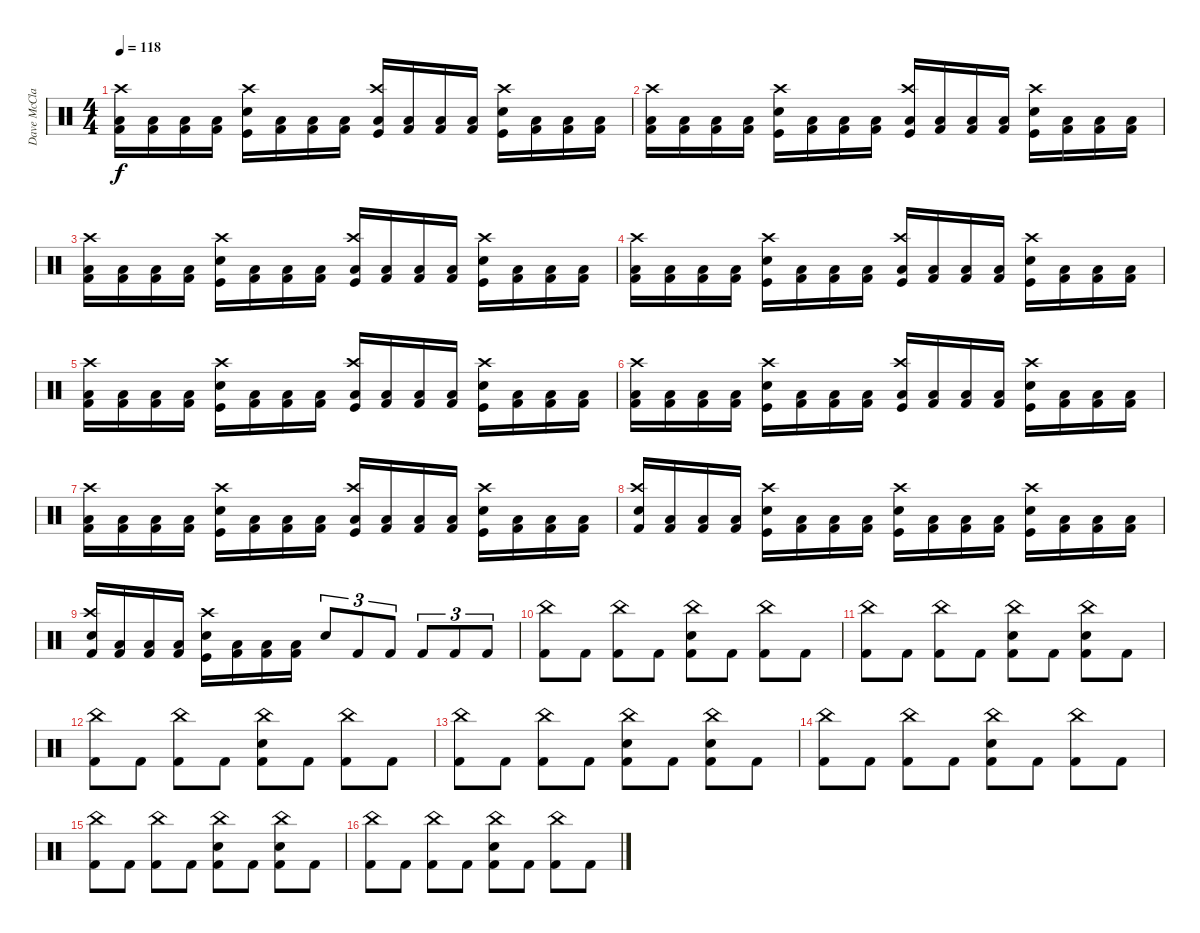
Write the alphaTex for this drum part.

\track ("Dave McClain" "Dave McCla") {instrument percussion}
\staff {score}
\articulation defaults
\ts (4 4)
\tempo 118
\clef neutral
\ks c
("Kick (hit) 2" "Low Floor Tom (hit)" "Crash high (hit)").16{dy f} ("Kick (hit) 2" "Low Floor Tom (hit)").16 ("Kick (hit) 2" "Low Floor Tom (hit)").16 ("Kick (hit) 2" "Low Floor Tom (hit)").16 ("Kick (hit)" "Snare (hit) 2" "Crash high (hit)").16 ("Kick (hit) 2" "Low Floor Tom (hit)").16 ("Kick (hit) 2" "Low Floor Tom (hit)").16 ("Kick (hit) 2" "Low Floor Tom (hit)").16 ("Kick (hit)" "Low Floor Tom (hit)" "Crash high (hit)").16 ("Kick (hit) 2" "Low Floor Tom (hit)").16 ("Kick (hit) 2" "Low Floor Tom (hit)").16 ("Kick (hit) 2" "Low Floor Tom (hit)").16 ("Kick (hit)" "Snare (hit) 2" "Crash high (hit)").16 ("Kick (hit) 2" "Low Floor Tom (hit)").16 ("Kick (hit) 2" "Low Floor Tom (hit)").16 ("Kick (hit) 2" "Low Floor Tom (hit)").16 |
("Kick (hit) 2" "Low Floor Tom (hit)" "Crash high (hit)").16 ("Kick (hit) 2" "Low Floor Tom (hit)").16 ("Kick (hit) 2" "Low Floor Tom (hit)").16 ("Kick (hit) 2" "Low Floor Tom (hit)").16 ("Kick (hit)" "Snare (hit) 2" "Crash high (hit)").16 ("Kick (hit) 2" "Low Floor Tom (hit)").16 ("Kick (hit) 2" "Low Floor Tom (hit)").16 ("Kick (hit) 2" "Low Floor Tom (hit)").16 ("Kick (hit)" "Low Floor Tom (hit)" "Crash high (hit)").16 ("Kick (hit) 2" "Low Floor Tom (hit)").16 ("Kick (hit) 2" "Low Floor Tom (hit)").16 ("Kick (hit) 2" "Low Floor Tom (hit)").16 ("Kick (hit)" "Snare (hit) 2" "Crash high (hit)").16 ("Kick (hit) 2" "Low Floor Tom (hit)").16 ("Kick (hit) 2" "Low Floor Tom (hit)").16 ("Kick (hit) 2" "Low Floor Tom (hit)").16 |
("Kick (hit) 2" "Low Floor Tom (hit)" "Crash high (hit)").16 ("Kick (hit) 2" "Low Floor Tom (hit)").16 ("Kick (hit) 2" "Low Floor Tom (hit)").16 ("Kick (hit) 2" "Low Floor Tom (hit)").16 ("Kick (hit)" "Snare (hit) 2" "Crash high (hit)").16 ("Kick (hit) 2" "Low Floor Tom (hit)").16 ("Kick (hit) 2" "Low Floor Tom (hit)").16 ("Kick (hit) 2" "Low Floor Tom (hit)").16 ("Kick (hit)" "Low Floor Tom (hit)" "Crash high (hit)").16 ("Kick (hit) 2" "Low Floor Tom (hit)").16 ("Kick (hit) 2" "Low Floor Tom (hit)").16 ("Kick (hit) 2" "Low Floor Tom (hit)").16 ("Kick (hit)" "Snare (hit) 2" "Crash high (hit)").16 ("Kick (hit) 2" "Low Floor Tom (hit)").16 ("Kick (hit) 2" "Low Floor Tom (hit)").16 ("Kick (hit) 2" "Low Floor Tom (hit)").16 |
("Kick (hit) 2" "Low Floor Tom (hit)" "Crash high (hit)").16 ("Kick (hit) 2" "Low Floor Tom (hit)").16 ("Kick (hit) 2" "Low Floor Tom (hit)").16 ("Kick (hit) 2" "Low Floor Tom (hit)").16 ("Kick (hit)" "Snare (hit) 2" "Crash high (hit)").16 ("Kick (hit) 2" "Low Floor Tom (hit)").16 ("Kick (hit) 2" "Low Floor Tom (hit)").16 ("Kick (hit) 2" "Low Floor Tom (hit)").16 ("Kick (hit)" "Low Floor Tom (hit)" "Crash high (hit)").16 ("Kick (hit) 2" "Low Floor Tom (hit)").16 ("Kick (hit) 2" "Low Floor Tom (hit)").16 ("Kick (hit) 2" "Low Floor Tom (hit)").16 ("Kick (hit)" "Snare (hit) 2" "Crash high (hit)").16 ("Kick (hit) 2" "Low Floor Tom (hit)").16 ("Kick (hit) 2" "Low Floor Tom (hit)").16 ("Kick (hit) 2" "Low Floor Tom (hit)").16 |
("Kick (hit) 2" "Low Floor Tom (hit)" "Crash high (hit)").16 ("Kick (hit) 2" "Low Floor Tom (hit)").16 ("Kick (hit) 2" "Low Floor Tom (hit)").16 ("Kick (hit) 2" "Low Floor Tom (hit)").16 ("Kick (hit)" "Snare (hit) 2" "Crash high (hit)").16 ("Kick (hit) 2" "Low Floor Tom (hit)").16 ("Kick (hit) 2" "Low Floor Tom (hit)").16 ("Kick (hit) 2" "Low Floor Tom (hit)").16 ("Kick (hit)" "Low Floor Tom (hit)" "Crash high (hit)").16 ("Kick (hit) 2" "Low Floor Tom (hit)").16 ("Kick (hit) 2" "Low Floor Tom (hit)").16 ("Kick (hit) 2" "Low Floor Tom (hit)").16 ("Kick (hit)" "Snare (hit) 2" "Crash high (hit)").16 ("Kick (hit) 2" "Low Floor Tom (hit)").16 ("Kick (hit) 2" "Low Floor Tom (hit)").16 ("Kick (hit) 2" "Low Floor Tom (hit)").16 |
("Kick (hit) 2" "Low Floor Tom (hit)" "Crash high (hit)").16 ("Kick (hit) 2" "Low Floor Tom (hit)").16 ("Kick (hit) 2" "Low Floor Tom (hit)").16 ("Kick (hit) 2" "Low Floor Tom (hit)").16 ("Kick (hit)" "Snare (hit) 2" "Crash high (hit)").16 ("Kick (hit) 2" "Low Floor Tom (hit)").16 ("Kick (hit) 2" "Low Floor Tom (hit)").16 ("Kick (hit) 2" "Low Floor Tom (hit)").16 ("Kick (hit)" "Low Floor Tom (hit)" "Crash high (hit)").16 ("Kick (hit) 2" "Low Floor Tom (hit)").16 ("Kick (hit) 2" "Low Floor Tom (hit)").16 ("Kick (hit) 2" "Low Floor Tom (hit)").16 ("Kick (hit)" "Snare (hit) 2" "Crash high (hit)").16 ("Kick (hit) 2" "Low Floor Tom (hit)").16 ("Kick (hit) 2" "Low Floor Tom (hit)").16 ("Kick (hit) 2" "Low Floor Tom (hit)").16 |
("Kick (hit) 2" "Low Floor Tom (hit)" "Crash high (hit)").16 ("Kick (hit) 2" "Low Floor Tom (hit)").16 ("Kick (hit) 2" "Low Floor Tom (hit)").16 ("Kick (hit) 2" "Low Floor Tom (hit)").16 ("Kick (hit)" "Snare (hit) 2" "Crash high (hit)").16 ("Kick (hit) 2" "Low Floor Tom (hit)").16 ("Kick (hit) 2" "Low Floor Tom (hit)").16 ("Kick (hit) 2" "Low Floor Tom (hit)").16 ("Kick (hit)" "Low Floor Tom (hit)" "Crash high (hit)").16 ("Kick (hit) 2" "Low Floor Tom (hit)").16 ("Kick (hit) 2" "Low Floor Tom (hit)").16 ("Kick (hit) 2" "Low Floor Tom (hit)").16 ("Kick (hit)" "Snare (hit) 2" "Crash high (hit)").16 ("Kick (hit) 2" "Low Floor Tom (hit)").16 ("Kick (hit) 2" "Low Floor Tom (hit)").16 ("Kick (hit) 2" "Low Floor Tom (hit)").16 |
("Kick (hit) 2" "Snare (hit) 2" "Crash high (hit)").16 ("Kick (hit) 2" "Low Floor Tom (hit)").16 ("Kick (hit) 2" "Low Floor Tom (hit)").16 ("Kick (hit) 2" "Low Floor Tom (hit)").16 ("Kick (hit)" "Snare (hit) 2" "Crash high (hit)").16 ("Kick (hit) 2" "Low Floor Tom (hit)").16 ("Kick (hit) 2" "Low Floor Tom (hit)").16 ("Kick (hit) 2" "Low Floor Tom (hit)").16 ("Kick (hit)" "Snare (hit) 2" "Crash high (hit)").16 ("Kick (hit) 2" "Low Floor Tom (hit)").16 ("Kick (hit) 2" "Low Floor Tom (hit)").16 ("Kick (hit) 2" "Low Floor Tom (hit)").16 ("Kick (hit)" "Snare (hit) 2" "Crash high (hit)").16 ("Kick (hit) 2" "Low Floor Tom (hit)").16 ("Kick (hit) 2" "Low Floor Tom (hit)").16 ("Kick (hit) 2" "Low Floor Tom (hit)").16 |
("Kick (hit) 2" "Snare (hit) 2" "Crash high (hit)").16 ("Kick (hit) 2" "Low Floor Tom (hit)").16 ("Kick (hit) 2" "Low Floor Tom (hit)").16 ("Kick (hit) 2" "Low Floor Tom (hit)").16 ("Kick (hit)" "Snare (hit) 2" "Crash high (hit)").16 ("Kick (hit) 2" "Low Floor Tom (hit)").16 ("Kick (hit) 2" "Low Floor Tom (hit)").16 ("Kick (hit) 2" "Low Floor Tom (hit)").16 "Snare (hit) 2".8{tu (3 2)} "Kick (hit) 2".8{tu (3 2)} "Kick (hit) 2".8{tu (3 2)} "Kick (hit) 2".8{tu (3 2)} "Kick (hit) 2".8{tu (3 2)} "Kick (hit) 2".8{tu (3 2)} |
("Kick (hit) 2" "China (hit)").8 "Kick (hit) 2".8 ("Kick (hit) 2" "China (hit)").8 "Kick (hit) 2".8 ("Kick (hit) 2" "Snare (hit) 2" "China (hit)").8 "Kick (hit) 2".8 ("Kick (hit) 2" "China (hit)").8 "Kick (hit) 2".8 |
("Kick (hit) 2" "China (hit)").8 "Kick (hit) 2".8 ("Kick (hit) 2" "China (hit)").8 "Kick (hit) 2".8 ("Kick (hit) 2" "Snare (hit) 2" "China (hit)").8 "Kick (hit) 2".8 ("Kick (hit) 2" "Snare (hit) 2" "China (hit)").8 "Kick (hit) 2".8 |
("Kick (hit) 2" "China (hit)").8 "Kick (hit) 2".8 ("Kick (hit) 2" "China (hit)").8 "Kick (hit) 2".8 ("Kick (hit) 2" "Snare (hit) 2" "China (hit)").8 "Kick (hit) 2".8 ("Kick (hit) 2" "China (hit)").8 "Kick (hit) 2".8 |
("Kick (hit) 2" "China (hit)").8 "Kick (hit) 2".8 ("Kick (hit) 2" "China (hit)").8 "Kick (hit) 2".8 ("Kick (hit) 2" "Snare (hit) 2" "China (hit)").8 "Kick (hit) 2".8 ("Kick (hit) 2" "Snare (hit) 2" "China (hit)").8 "Kick (hit) 2".8 |
("Kick (hit) 2" "China (hit)").8 "Kick (hit) 2".8 ("Kick (hit) 2" "China (hit)").8 "Kick (hit) 2".8 ("Kick (hit) 2" "Snare (hit) 2" "China (hit)").8 "Kick (hit) 2".8 ("Kick (hit) 2" "China (hit)").8 "Kick (hit) 2".8 |
("Kick (hit) 2" "China (hit)").8 "Kick (hit) 2".8 ("Kick (hit) 2" "China (hit)").8 "Kick (hit) 2".8 ("Kick (hit) 2" "Snare (hit) 2" "China (hit)").8 "Kick (hit) 2".8 ("Kick (hit) 2" "Snare (hit) 2" "China (hit)").8 "Kick (hit) 2".8 |
("Kick (hit) 2" "China (hit)").8 "Kick (hit) 2".8 ("Kick (hit) 2" "China (hit)").8 "Kick (hit) 2".8 ("Kick (hit) 2" "Snare (hit) 2" "China (hit)").8 "Kick (hit) 2".8 ("Kick (hit) 2" "China (hit)").8 "Kick (hit) 2".8
